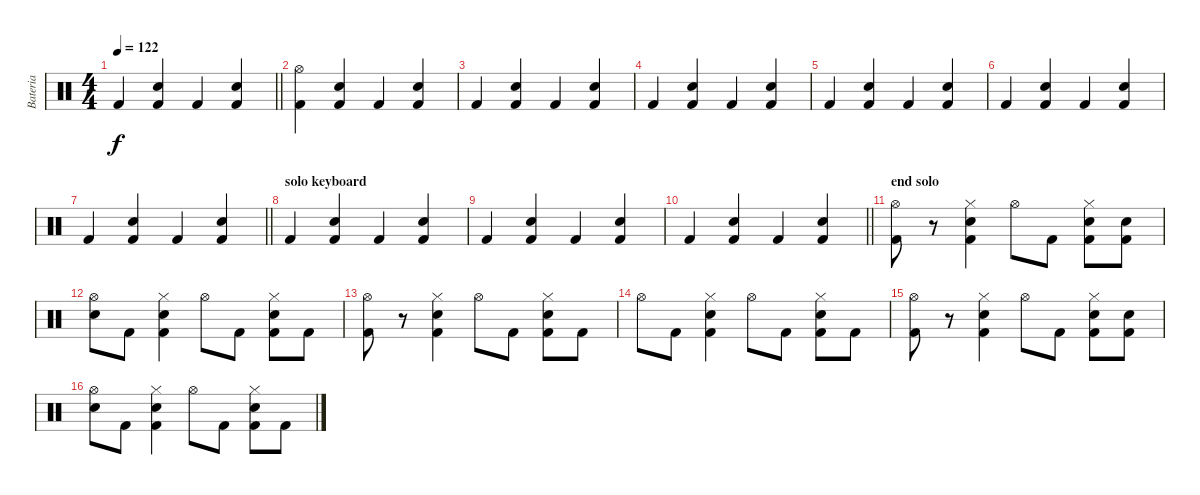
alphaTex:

\track ("Bateria" "Bateria") {instrument percussion}
\staff {score}
\articulation defaults
\ts (4 4)
\tempo 122
\clef neutral
\barLineRight lightlight
\ks c "Kick (hit) 2".4{dy f}
("Kick (hit) 2" "Snare (hit) 2").4 "Kick (hit) 2".4 ("Kick (hit) 2" "Snare (hit) 2").4 |
("Kick (hit) 2" "Hi-Hat (open)").4 ("Kick (hit) 2" "Snare (hit) 2").4 "Kick (hit) 2".4 ("Kick (hit) 2" "Snare (hit) 2").4 |
"Kick (hit) 2".4 ("Kick (hit) 2" "Snare (hit) 2").4 "Kick (hit) 2".4 ("Kick (hit) 2" "Snare (hit) 2").4 |
"Kick (hit) 2".4 ("Kick (hit) 2" "Snare (hit) 2").4 "Kick (hit) 2".4 ("Kick (hit) 2" "Snare (hit) 2").4 |
"Kick (hit) 2".4 ("Kick (hit) 2" "Snare (hit) 2").4 "Kick (hit) 2".4 ("Kick (hit) 2" "Snare (hit) 2").4 |
"Kick (hit) 2".4 ("Kick (hit) 2" "Snare (hit) 2").4 "Kick (hit) 2".4 ("Kick (hit) 2" "Snare (hit) 2").4 |
\barLineRight lightlight "Kick (hit) 2".4
("Kick (hit) 2" "Snare (hit) 2").4 "Kick (hit) 2".4 ("Kick (hit) 2" "Snare (hit) 2").4 |
\section ("" "solo keyboard")
"Kick (hit) 2".4 ("Kick (hit) 2" "Snare (hit) 2").4 "Kick (hit) 2".4 ("Kick (hit) 2" "Snare (hit) 2").4 |
"Kick (hit) 2".4 ("Kick (hit) 2" "Snare (hit) 2").4 "Kick (hit) 2".4 ("Kick (hit) 2" "Snare (hit) 2").4 |
\barLineRight lightlight "Kick (hit) 2".4
("Kick (hit) 2" "Snare (hit) 2").4 "Kick (hit) 2".4 ("Kick (hit) 2" "Snare (hit) 2").4 |
\section ("" "end solo")
("Kick (hit) 2" "Hi-Hat (open)").8 r.8 ("Kick (hit) 2" "Snare (hit) 2" "Hi-Hat (closed)").4 "Hi-Hat (open)".8 "Kick (hit) 2".8 ("Kick (hit) 2" "Snare (hit) 2" "Hi-Hat (closed)").8 ("Kick (hit) 2" "Snare (hit)").8 |
("Hi-Hat (open)" "Snare (hit)").8 "Kick (hit) 2".8 ("Kick (hit) 2" "Snare (hit) 2" "Hi-Hat (closed)").4 "Hi-Hat (open)".8 "Kick (hit) 2".8 ("Kick (hit) 2" "Snare (hit) 2" "Hi-Hat (closed)").8 "Kick (hit) 2".8 |
("Kick (hit) 2" "Hi-Hat (open)").8 r.8 ("Kick (hit) 2" "Snare (hit) 2" "Hi-Hat (closed)").4 "Hi-Hat (open)".8 "Kick (hit) 2".8 ("Kick (hit) 2" "Snare (hit) 2" "Hi-Hat (closed)").8 "Kick (hit) 2".8 |
"Hi-Hat (open)".8 "Kick (hit) 2".8 ("Kick (hit) 2" "Snare (hit) 2" "Hi-Hat (closed)").4 "Hi-Hat (open)".8 "Kick (hit) 2".8 ("Kick (hit) 2" "Snare (hit) 2" "Hi-Hat (closed)").8 "Kick (hit) 2".8 |
("Kick (hit) 2" "Hi-Hat (open)").8 r.8 ("Kick (hit) 2" "Snare (hit) 2" "Hi-Hat (closed)").4 "Hi-Hat (open)".8 "Kick (hit) 2".8 ("Kick (hit) 2" "Snare (hit) 2" "Hi-Hat (closed)").8 ("Kick (hit) 2" "Snare (hit)").8 |
("Hi-Hat (open)" "Snare (hit)").8 "Kick (hit) 2".8 ("Kick (hit) 2" "Snare (hit) 2" "Hi-Hat (closed)").4 "Hi-Hat (open)".8 "Kick (hit) 2".8 ("Kick (hit) 2" "Snare (hit) 2" "Hi-Hat (closed)").8 "Kick (hit) 2".8
